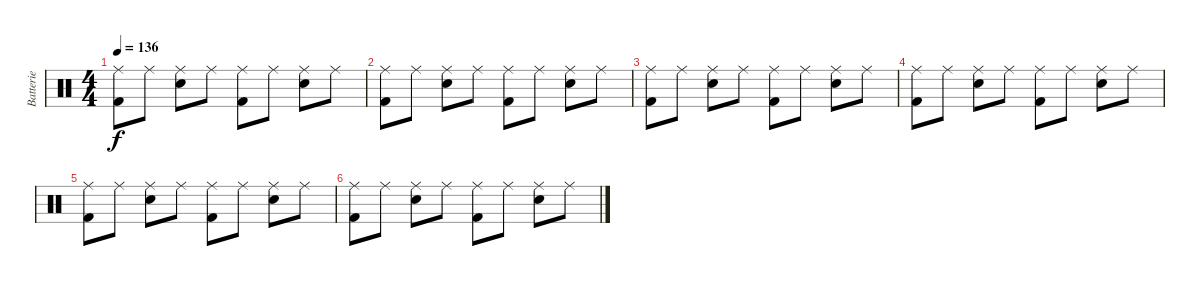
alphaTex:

\track ("Batterie" "Batterie") {instrument percussion}
\staff {score}
\articulation defaults
\ts (4 4)
\tempo 136
\clef neutral
\ks c
("Ride (middle)" "Kick (hit) 2").8{dy f volume 6} "Ride (middle)".8 ("Ride (middle)" "Snare (hit) 2").8 "Ride (middle)".8 ("Ride (middle)" "Kick (hit) 2").8 "Ride (middle)".8 ("Ride (middle)" "Snare (hit) 2").8 "Ride (middle)".8 |
("Ride (middle)" "Kick (hit) 2").8{volume 5} "Ride (middle)".8 ("Ride (middle)" "Snare (hit) 2").8 "Ride (middle)".8 ("Ride (middle)" "Kick (hit) 2").8 "Ride (middle)".8 ("Ride (middle)" "Snare (hit) 2").8 "Ride (middle)".8 |
("Ride (middle)" "Kick (hit) 2").8{volume 4} "Ride (middle)".8 ("Ride (middle)" "Snare (hit) 2").8 "Ride (middle)".8 ("Ride (middle)" "Kick (hit) 2").8 "Ride (middle)".8 ("Ride (middle)" "Snare (hit) 2").8 "Ride (middle)".8 |
("Ride (middle)" "Kick (hit) 2").8{volume 3} "Ride (middle)".8 ("Ride (middle)" "Snare (hit) 2").8 "Ride (middle)".8 ("Ride (middle)" "Kick (hit) 2").8 "Ride (middle)".8 ("Ride (middle)" "Snare (hit) 2").8 "Ride (middle)".8 |
("Ride (middle)" "Kick (hit) 2").8{volume 2} "Ride (middle)".8 ("Ride (middle)" "Snare (hit) 2").8 "Ride (middle)".8 ("Ride (middle)" "Kick (hit) 2").8 "Ride (middle)".8 ("Ride (middle)" "Snare (hit) 2").8 "Ride (middle)".8 |
("Ride (middle)" "Kick (hit) 2").8 "Ride (middle)".8 ("Ride (middle)" "Snare (hit) 2").8 "Ride (middle)".8 ("Ride (middle)" "Kick (hit) 2").8 "Ride (middle)".8 ("Ride (middle)" "Snare (hit) 2").8 "Ride (middle)".8
